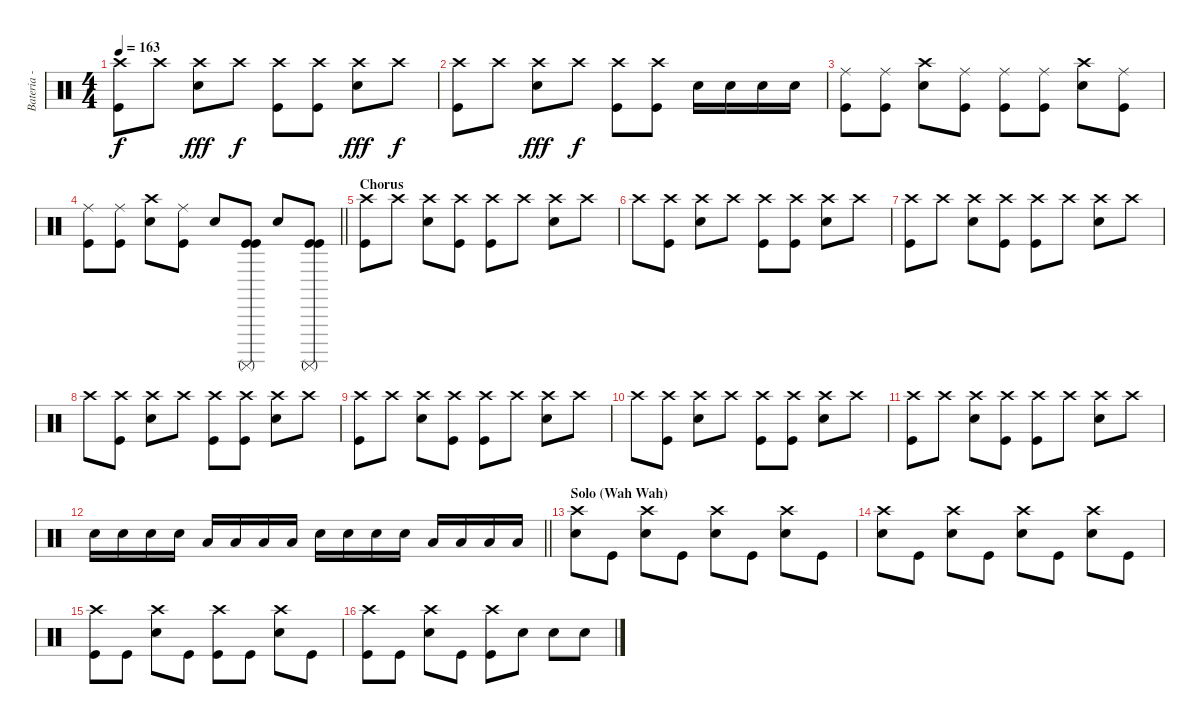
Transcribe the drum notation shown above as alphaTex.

\track ("Bateria - Larzon " "Bateria - ") {instrument percussion}
\staff {score}
\articulation defaults
\ts (4 4)
\tempo 163
\clef neutral
\ks c
("Kick (hit)" "Crash high (hit)").8{dy f} "Crash high (hit)".8 ("Electric Snare (hit)" "Crash high (hit)").8{dy fff} "Crash high (hit)".8{dy f} ("Kick (hit)" "Crash high (hit)").8 ("Kick (hit)" "Crash high (hit)").8 ("Electric Snare (hit)" "Crash high (hit)").8{dy fff} "Crash high (hit)".8{dy f} |
("Kick (hit)" "Crash high (hit)").8 "Crash high (hit)".8 ("Electric Snare (hit)" "Crash high (hit)").8{dy fff} "Crash high (hit)".8{dy f} ("Kick (hit)" "Crash high (hit)").8 ("Kick (hit)" "Crash high (hit)").8 "Electric Snare (hit)".16 "Electric Snare (hit)".16 "Electric Snare (hit)".16 "Electric Snare (hit)".16 |
("Kick (hit)" "Ride (middle)").8 ("Kick (hit)" "Ride (middle)").8 ("Electric Snare (hit)" "Crash high (hit)").8 ("Kick (hit)" "Ride (middle)").8 ("Kick (hit)" "Ride (middle)").8 ("Kick (hit)" "Ride (middle)").8 ("Electric Snare (hit)" "Crash high (hit)").8 ("Kick (hit)" "Ride (middle)").8 |
\barLineRight lightlight
("Kick (hit)" "Ride (middle)").8 ("Kick (hit)" "Ride (middle)").8 ("Electric Snare (hit)" "Crash high (hit)").8 ("Kick (hit)" "Ride (middle)").8 "Electric Snare (hit)".8 ("Kick (hit)" "Surdo (mute)" "Kick (hit)").8 "Electric Snare (hit)".8 ("Kick (hit)" "Surdo (mute)" "Kick (hit)").8 |
\section ("" "Chorus")
("Kick (hit)" "Crash high (hit)").8 "Crash high (hit)".8 ("Electric Snare (hit)" "Crash high (hit)").8 ("Kick (hit)" "Crash high (hit)").8 ("Kick (hit)" "Crash high (hit)").8 "Crash high (hit)".8 ("Electric Snare (hit)" "Crash high (hit)").8 "Crash high (hit)".8 |
"Crash high (hit)".8 ("Kick (hit)" "Crash high (hit)").8 ("Electric Snare (hit)" "Crash high (hit)").8 "Crash high (hit)".8 ("Kick (hit)" "Crash high (hit)").8 ("Kick (hit)" "Crash high (hit)").8 ("Electric Snare (hit)" "Crash high (hit)").8 "Crash high (hit)".8 |
("Kick (hit)" "Crash high (hit)").8 "Crash high (hit)".8 ("Electric Snare (hit)" "Crash high (hit)").8 ("Kick (hit)" "Crash high (hit)").8 ("Kick (hit)" "Crash high (hit)").8 "Crash high (hit)".8 ("Electric Snare (hit)" "Crash high (hit)").8 "Crash high (hit)".8 |
"Crash high (hit)".8 ("Kick (hit)" "Crash high (hit)").8 ("Electric Snare (hit)" "Crash high (hit)").8 "Crash high (hit)".8 ("Kick (hit)" "Crash high (hit)").8 ("Kick (hit)" "Crash high (hit)").8 ("Electric Snare (hit)" "Crash high (hit)").8 "Crash high (hit)".8 |
("Kick (hit)" "Crash high (hit)").8 "Crash high (hit)".8 ("Electric Snare (hit)" "Crash high (hit)").8 ("Kick (hit)" "Crash high (hit)").8 ("Kick (hit)" "Crash high (hit)").8 "Crash high (hit)".8 ("Electric Snare (hit)" "Crash high (hit)").8 "Crash high (hit)".8 |
"Crash high (hit)".8 ("Kick (hit)" "Crash high (hit)").8 ("Electric Snare (hit)" "Crash high (hit)").8 "Crash high (hit)".8 ("Kick (hit)" "Crash high (hit)").8 ("Kick (hit)" "Crash high (hit)").8 ("Electric Snare (hit)" "Crash high (hit)").8 "Crash high (hit)".8 |
("Kick (hit)" "Crash high (hit)").8 "Crash high (hit)".8 ("Electric Snare (hit)" "Crash high (hit)").8 ("Kick (hit)" "Crash high (hit)").8 ("Kick (hit)" "Crash high (hit)").8 "Crash high (hit)".8 ("Electric Snare (hit)" "Crash high (hit)").8 "Crash high (hit)".8 |
\barLineRight lightlight "Electric Snare (hit)".16 "Electric Snare (hit)".16 "Electric Snare (hit)".16 "Electric Snare (hit)".16 "Low Tom (hit)".16 "Low Tom (hit)".16 "Low Tom (hit)".16 "Low Tom (hit)".16 "Electric Snare (hit)".16 "Electric Snare (hit)".16 "Electric Snare (hit)".16 "Electric Snare (hit)".16 "Low Tom (hit)".16 "Low Tom (hit)".16 "Low Tom (hit)".16 "Low Tom (hit)".16
|
\section ("" "Solo (Wah Wah)")
("Electric Snare (hit)" "Crash high (hit)").8 "Kick (hit)".8 ("Electric Snare (hit)" "Crash high (hit)").8 "Kick (hit)".8 ("Electric Snare (hit)" "Crash high (hit)").8 "Kick (hit)".8 ("Electric Snare (hit)" "Crash high (hit)").8 "Kick (hit)".8 |
("Electric Snare (hit)" "Crash high (hit)").8 "Kick (hit)".8 ("Electric Snare (hit)" "Crash high (hit)").8 "Kick (hit)".8 ("Electric Snare (hit)" "Crash high (hit)").8 "Kick (hit)".8 ("Electric Snare (hit)" "Crash high (hit)").8 "Kick (hit)".8 |
("Kick (hit)" "Crash high (hit)").8 "Kick (hit)".8 ("Electric Snare (hit)" "Crash high (hit)").8 "Kick (hit)".8 ("Kick (hit)" "Crash high (hit)").8 "Kick (hit)".8 ("Electric Snare (hit)" "Crash high (hit)").8 "Kick (hit)".8 |
("Kick (hit)" "Crash high (hit)").8 "Kick (hit)".8 ("Electric Snare (hit)" "Crash high (hit)").8 "Kick (hit)".8 ("Kick (hit)" "Crash high (hit)").8 "Electric Snare (hit)".8 "Electric Snare (hit)".8 "Electric Snare (hit)".8
